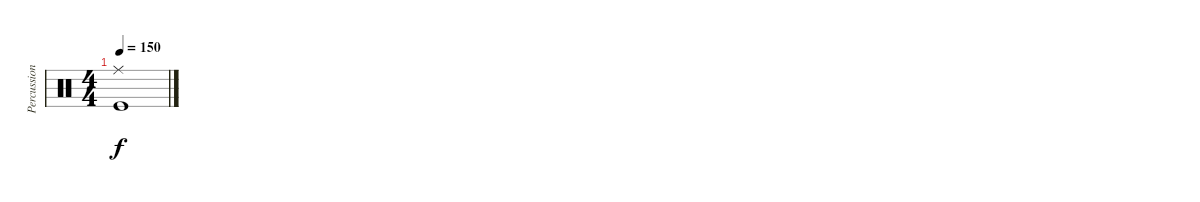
\track ("Percussion" "Percussion") {instrument percussion}
\staff {score}
\articulation defaults
\ts (4 4)
\tempo 150
\clef neutral
\ks c
("Ride (middle)" "Kick (hit)").1{dy f}
